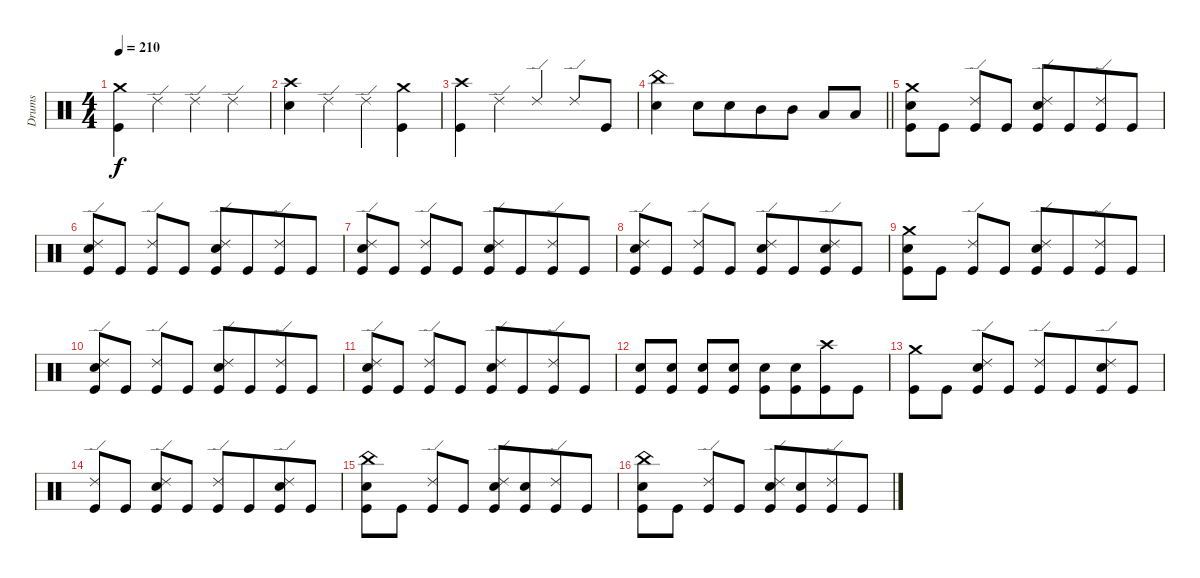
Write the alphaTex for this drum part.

\track ("Drums" "Drums") {instrument percussion}
\staff {score}
\articulation defaults
\ts (4 4)
\tempo 210
\clef neutral
\ks c
("Crash medium (hit)" "Kick (hit)").4{dy f} "Ride (edge) 2".4 "Ride (edge) 2".4 "Ride (edge) 2".4 |
("Crash high (hit)" "Electric Snare (hit)").4 "Ride (edge) 2".4 "Ride (edge) 2".4{beam merge} ("Crash medium (hit)" "Kick (hit)").4 |
("Crash high (hit)" "Kick (hit)").4 "Ride (edge) 2".4 "Ride (edge) 2".4{beam merge} "Ride (edge) 2".8{beam merge} "Kick (hit)".8 |
\barLineRight lightlight
("China (hit)" "Electric Snare (hit)").4 "Electric Snare (hit)".8 "Electric Snare (hit)".8{beam merge} "Mid Tom (hit)".8{beam merge} "Mid Tom (hit)".8 "Low Tom (hit)".8 "Low Tom (hit)".8 |
("Crash medium (hit)" "Electric Snare (hit)" "Kick (hit)").8 "Kick (hit)".8 ("Ride (edge) 2" "Kick (hit)").8{beam merge} "Kick (hit)".8 ("Ride (edge) 2" "Electric Snare (hit)" "Kick (hit)").8 "Kick (hit)".8{beam merge} ("Ride (edge) 2" "Kick (hit)").8 "Kick (hit)".8 |
("Ride (edge) 2" "Electric Snare (hit)" "Kick (hit)").8 "Kick (hit)".8 ("Ride (edge) 2" "Kick (hit)").8{beam merge} "Kick (hit)".8 ("Ride (edge) 2" "Electric Snare (hit)" "Kick (hit)").8 "Kick (hit)".8{beam merge} ("Ride (edge) 2" "Kick (hit)").8 "Kick (hit)".8 |
("Ride (edge) 2" "Electric Snare (hit)" "Kick (hit)").8 "Kick (hit)".8 ("Ride (edge) 2" "Kick (hit)").8{beam merge} "Kick (hit)".8 ("Ride (edge) 2" "Electric Snare (hit)" "Kick (hit)").8 "Kick (hit)".8{beam merge} ("Ride (edge) 2" "Kick (hit)").8 "Kick (hit)".8 |
("Ride (edge) 2" "Electric Snare (hit)" "Kick (hit)").8 "Kick (hit)".8 ("Ride (edge) 2" "Kick (hit)").8{beam merge} "Kick (hit)".8 ("Ride (edge) 2" "Electric Snare (hit)" "Kick (hit)").8 "Kick (hit)".8{beam merge} ("Ride (edge) 2" "Electric Snare (hit)" "Kick (hit)").8 "Kick (hit)".8 |
("Crash medium (hit)" "Electric Snare (hit)" "Kick (hit)").8 "Kick (hit)".8 ("Ride (edge) 2" "Kick (hit)").8{beam merge} "Kick (hit)".8 ("Ride (edge) 2" "Electric Snare (hit)" "Kick (hit)").8 "Kick (hit)".8{beam merge} ("Ride (edge) 2" "Kick (hit)").8 "Kick (hit)".8 |
("Ride (edge) 2" "Electric Snare (hit)" "Kick (hit)").8 "Kick (hit)".8 ("Ride (edge) 2" "Kick (hit)").8{beam merge} "Kick (hit)".8 ("Ride (edge) 2" "Electric Snare (hit)" "Kick (hit)").8 "Kick (hit)".8{beam merge} ("Ride (edge) 2" "Kick (hit)").8 "Kick (hit)".8 |
("Ride (edge) 2" "Electric Snare (hit)" "Kick (hit)").8 "Kick (hit)".8 ("Ride (edge) 2" "Kick (hit)").8{beam merge} "Kick (hit)".8 ("Ride (edge) 2" "Electric Snare (hit)" "Kick (hit)").8 "Kick (hit)".8{beam merge} ("Ride (edge) 2" "Kick (hit)").8 "Kick (hit)".8 |
("Electric Snare (hit)" "Kick (hit)").8 ("Electric Snare (hit)" "Kick (hit)").8 ("Electric Snare (hit)" "Kick (hit)").8{beam merge} ("Electric Snare (hit)" "Kick (hit)").8 ("Electric Snare (hit)" "Kick (hit)").8 ("Electric Snare (hit)" "Kick (hit)").8{beam merge} ("Crash high (hit)" "Kick (hit)").8 "Kick (hit)".8 |
("Crash medium (hit)" "Kick (hit)").8 "Kick (hit)".8 ("Ride (edge) 2" "Electric Snare (hit)" "Kick (hit)").8{beam merge} "Kick (hit)".8 ("Ride (edge) 2" "Kick (hit)").8 "Kick (hit)".8{beam merge} ("Ride (edge) 2" "Electric Snare (hit)" "Kick (hit)").8 "Kick (hit)".8 |
("Ride (edge) 2" "Kick (hit)").8 "Kick (hit)".8 ("Ride (edge) 2" "Electric Snare (hit)" "Kick (hit)").8{beam merge} "Kick (hit)".8 ("Ride (edge) 2" "Kick (hit)").8 "Kick (hit)".8{beam merge} ("Ride (edge) 2" "Electric Snare (hit)" "Kick (hit)").8 "Kick (hit)".8 |
("China (hit)" "Electric Snare (hit)" "Kick (hit)").8 "Kick (hit)".8 ("Ride (edge) 2" "Kick (hit)").8{beam merge} "Kick (hit)".8 ("Ride (edge) 2" "Electric Snare (hit)" "Kick (hit)").8 ("Electric Snare (hit)" "Kick (hit)").8{beam merge} ("Ride (edge) 2" "Kick (hit)").8 "Kick (hit)".8 |
("China (hit)" "Electric Snare (hit)" "Kick (hit)").8 "Kick (hit)".8 ("Ride (edge) 2" "Kick (hit)").8{beam merge} "Kick (hit)".8 ("Ride (edge) 2" "Electric Snare (hit)" "Kick (hit)").8 ("Electric Snare (hit)" "Kick (hit)").8{beam merge} ("Ride (edge) 2" "Kick (hit)").8 "Kick (hit)".8
